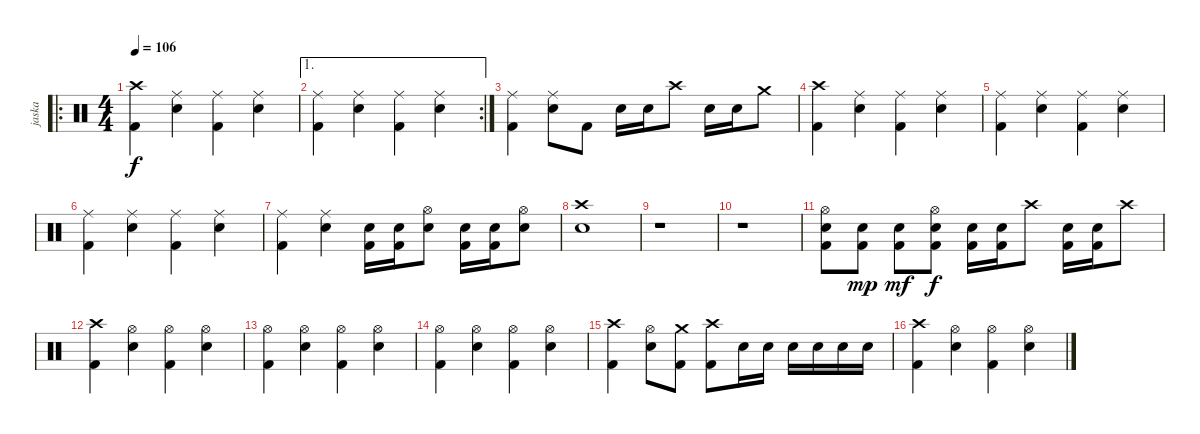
\track ("jaska" "jaska") {instrument percussion}
\staff {score}
\articulation defaults
\ro
\ts (4 4)
\tempo 106
\clef neutral
\ks c
("Kick (hit) 2" "Crash high (hit)").4{dy f} ("Ride (middle)" "Snare (hit) 2").4 ("Kick (hit) 2" "Ride (middle)").4 ("Ride (middle)" "Snare (hit) 2").4 |
\ae 1
\rc 2
("Kick (hit) 2" "Ride (middle)").4 ("Ride (middle)" "Snare (hit) 2").4 ("Kick (hit) 2" "Ride (middle)").4 ("Ride (middle)" "Snare (hit) 2").4 |
("Kick (hit) 2" "Ride (middle)").4 ("Ride (middle)" "Snare (hit) 2").8 "Kick (hit) 2".8 "Snare (hit) 2".16 "Snare (hit) 2".16 "Crash high (hit)".8 "Snare (hit) 2".16 "Snare (hit) 2".16 "Crash medium (hit)".8 |
("Kick (hit) 2" "Crash high (hit)").4 ("Ride (middle)" "Snare (hit) 2").4 ("Kick (hit) 2" "Ride (middle)").4 ("Ride (middle)" "Snare (hit) 2").4 |
("Kick (hit) 2" "Ride (middle)").4 ("Ride (middle)" "Snare (hit) 2").4 ("Kick (hit) 2" "Ride (middle)").4 ("Ride (middle)" "Snare (hit) 2").4 |
("Kick (hit) 2" "Ride (middle)").4 ("Ride (middle)" "Snare (hit) 2").4 ("Kick (hit) 2" "Ride (middle)").4 ("Ride (middle)" "Snare (hit) 2").4 |
("Kick (hit) 2" "Ride (middle)").4 ("Ride (middle)" "Snare (hit) 2").4 ("Kick (hit) 2" "Snare (hit) 2").16 ("Kick (hit) 2" "Snare (hit) 2").16 ("Hi-Hat (open)" "Snare (hit) 2").8 ("Kick (hit) 2" "Snare (hit) 2").16 ("Kick (hit) 2" "Snare (hit) 2").16 ("Hi-Hat (open)" "Snare (hit) 2").8 |
("Crash high (hit)" "Snare (hit) 2").1 |
r.1 |
r.1 |
("Kick (hit) 2" "Hi-Hat (open)" "Snare (hit) 2").8 ("Kick (hit) 2" "Snare (hit) 2").8{dy mp} ("Kick (hit) 2" "Snare (hit) 2").8{dy mf} ("Kick (hit) 2" "Hi-Hat (open)" "Snare (hit) 2").8{dy f} ("Kick (hit) 2" "Snare (hit) 2").16 ("Kick (hit) 2" "Snare (hit) 2").16 "Crash high (hit)".8 ("Kick (hit) 2" "Snare (hit) 2").16 ("Kick (hit) 2" "Snare (hit) 2").16 "Crash high (hit)".8 |
("Kick (hit) 2" "Crash high (hit)").4 ("Hi-Hat (open)" "Snare (hit) 2").4 ("Kick (hit) 2" "Hi-Hat (open)").4 ("Hi-Hat (open)" "Snare (hit) 2").4 |
("Kick (hit) 2" "Hi-Hat (open)").4 ("Hi-Hat (open)" "Snare (hit) 2").4 ("Kick (hit) 2" "Hi-Hat (open)").4 ("Hi-Hat (open)" "Snare (hit) 2").4 |
("Kick (hit) 2" "Hi-Hat (open)").4 ("Hi-Hat (open)" "Snare (hit) 2").4 ("Kick (hit) 2" "Hi-Hat (open)").4 ("Hi-Hat (open)" "Snare (hit) 2").4 |
("Kick (hit) 2" "Crash high (hit)").4 ("Hi-Hat (open)" "Snare (hit) 2").8 ("Kick (hit) 2" "Crash medium (hit)").8 ("Kick (hit) 2" "Crash high (hit)").8 "Snare (hit) 2".16 "Snare (hit) 2".16 "Snare (hit) 2".16 "Snare (hit) 2".16 "Snare (hit) 2".16 "Snare (hit) 2".16 |
("Kick (hit) 2" "Crash high (hit)").4 ("Hi-Hat (open)" "Snare (hit) 2").4 ("Kick (hit) 2" "Hi-Hat (open)").4 ("Hi-Hat (open)" "Snare (hit) 2").4
